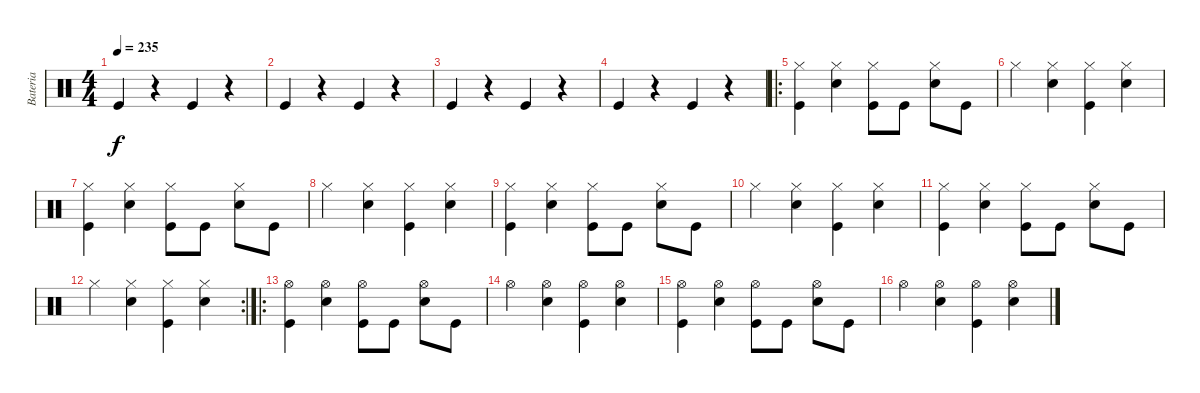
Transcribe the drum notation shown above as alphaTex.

\track ("Bateria" "Bateria") {instrument percussion}
\staff {score}
\articulation defaults
\ts (4 4)
\tempo 235
\clef neutral
\ks c "Kick (hit)".4{dy f}
r.4 "Kick (hit)".4 r.4 |
"Kick (hit)".4 r.4 "Kick (hit)".4 r.4 |
"Kick (hit)".4 r.4 "Kick (hit)".4 r.4 |
"Kick (hit)".4 r.4 "Kick (hit)".4 r.4 |
\ro
("Hi-Hat (closed)" "Kick (hit)").4 ("Hi-Hat (closed)" "Electric Snare (hit)").4 ("Hi-Hat (closed)" "Kick (hit)").8 "Kick (hit)".8 ("Hi-Hat (closed)" "Electric Snare (hit)").8 "Kick (hit)".8 |
"Hi-Hat (closed)".4 ("Hi-Hat (closed)" "Electric Snare (hit)").4 ("Hi-Hat (closed)" "Kick (hit)").4 ("Hi-Hat (closed)" "Electric Snare (hit)").4 |
("Hi-Hat (closed)" "Kick (hit)").4 ("Hi-Hat (closed)" "Electric Snare (hit)").4 ("Hi-Hat (closed)" "Kick (hit)").8 "Kick (hit)".8 ("Hi-Hat (closed)" "Electric Snare (hit)").8 "Kick (hit)".8 |
"Hi-Hat (closed)".4 ("Hi-Hat (closed)" "Electric Snare (hit)").4 ("Hi-Hat (closed)" "Kick (hit)").4 ("Hi-Hat (closed)" "Electric Snare (hit)").4 |
("Hi-Hat (closed)" "Kick (hit)").4 ("Hi-Hat (closed)" "Electric Snare (hit)").4 ("Hi-Hat (closed)" "Kick (hit)").8 "Kick (hit)".8 ("Hi-Hat (closed)" "Electric Snare (hit)").8 "Kick (hit)".8 |
"Hi-Hat (closed)".4 ("Hi-Hat (closed)" "Electric Snare (hit)").4 ("Hi-Hat (closed)" "Kick (hit)").4 ("Hi-Hat (closed)" "Electric Snare (hit)").4 |
("Hi-Hat (closed)" "Kick (hit)").4 ("Hi-Hat (closed)" "Electric Snare (hit)").4 ("Hi-Hat (closed)" "Kick (hit)").8 "Kick (hit)".8 ("Hi-Hat (closed)" "Electric Snare (hit)").8 "Kick (hit)".8 |
\rc 2 "Hi-Hat (closed)".4
("Hi-Hat (closed)" "Electric Snare (hit)").4 ("Hi-Hat (closed)" "Kick (hit)").4 ("Hi-Hat (closed)" "Electric Snare (hit)").4 |
\ro
("Hi-Hat (open)" "Kick (hit)").4 ("Hi-Hat (open)" "Electric Snare (hit)").4 ("Hi-Hat (open)" "Kick (hit)").8 "Kick (hit)".8 ("Hi-Hat (open)" "Electric Snare (hit)").8 "Kick (hit)".8 |
"Hi-Hat (open)".4 ("Hi-Hat (open)" "Electric Snare (hit)").4 ("Hi-Hat (open)" "Kick (hit)").4 ("Hi-Hat (open)" "Electric Snare (hit)").4 |
("Hi-Hat (open)" "Kick (hit)").4 ("Hi-Hat (open)" "Electric Snare (hit)").4 ("Hi-Hat (open)" "Kick (hit)").8 "Kick (hit)".8 ("Hi-Hat (open)" "Electric Snare (hit)").8 "Kick (hit)".8 |
"Hi-Hat (open)".4 ("Hi-Hat (open)" "Electric Snare (hit)").4 ("Hi-Hat (open)" "Kick (hit)").4 ("Hi-Hat (open)" "Electric Snare (hit)").4
